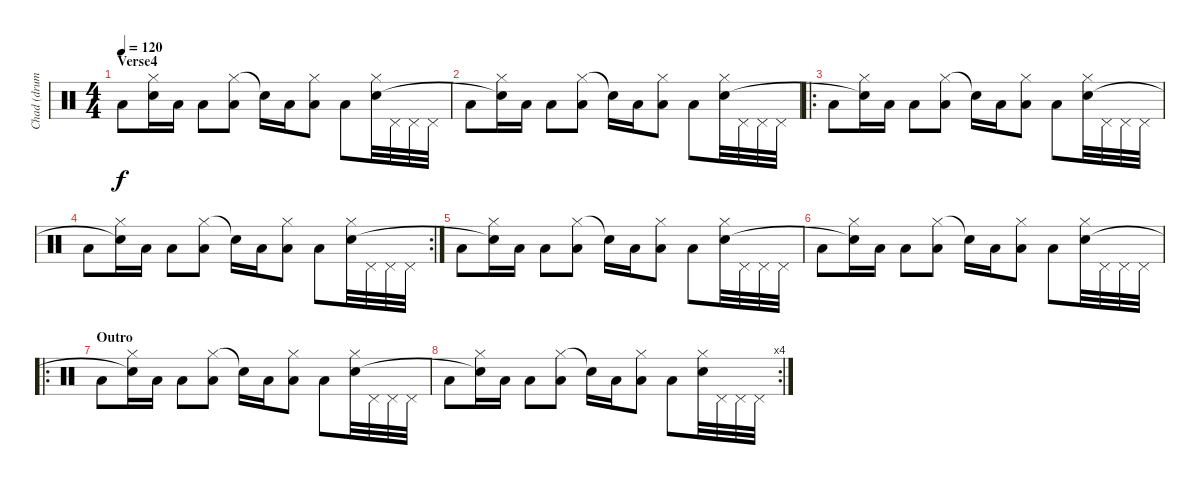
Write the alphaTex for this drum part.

\track ("Chad (drums)" "Chad (drum") {instrument percussion}
\staff {score}
\articulation defaults
\ts (4 4)
\section ("" "Verse4")
\tempo 120
\clef neutral
\ks c "Low Tom (hit)".8{dy f}
("Hi-Hat (closed)" "Snare (hit)"{t}).16 "Low Tom (hit)".16 "Low Floor Tom (hit)".8 ("Hi-Hat (closed)" "Low Tom (hit)").8 "Snare (hit)"{t}.16 "Low Tom (hit)".16 ("Hi-Hat (closed)" "Low Floor Tom (hit)").8 "Low Tom (hit)".8 ("Hi-Hat (closed)" "Snare (hit) 2").32 "Pedal Hi-Hat (hit)".32 "Pedal Hi-Hat (hit)".32 "Pedal Hi-Hat (hit)".32 |
"Low Tom (hit)".8 ("Hi-Hat (closed)" "Snare (hit)"{t}).16 "Low Tom (hit)".16 "Low Floor Tom (hit)".8 ("Hi-Hat (closed)" "Low Tom (hit)").8 "Snare (hit)"{t}.16 "Low Tom (hit)".16 ("Hi-Hat (closed)" "Low Floor Tom (hit)").8 "Low Tom (hit)".8 ("Hi-Hat (closed)" "Snare (hit) 2").32 "Pedal Hi-Hat (hit)".32 "Pedal Hi-Hat (hit)".32 "Pedal Hi-Hat (hit)".32 |
\ro "Low Tom (hit)".8
("Hi-Hat (closed)" "Snare (hit)"{t}).16 "Low Tom (hit)".16 "Low Floor Tom (hit)".8 ("Hi-Hat (closed)" "Low Tom (hit)").8 "Snare (hit)"{t}.16 "Low Tom (hit)".16 ("Hi-Hat (closed)" "Low Floor Tom (hit)").8 "Low Tom (hit)".8 ("Hi-Hat (closed)" "Snare (hit) 2").32 "Pedal Hi-Hat (hit)".32 "Pedal Hi-Hat (hit)".32 "Pedal Hi-Hat (hit)".32 |
\rc 2 "Low Tom (hit)".8
("Hi-Hat (closed)" "Snare (hit)"{t}).16 "Low Tom (hit)".16 "Low Floor Tom (hit)".8 ("Hi-Hat (closed)" "Low Tom (hit)").8 "Snare (hit)"{t}.16 "Low Tom (hit)".16 ("Hi-Hat (closed)" "Low Floor Tom (hit)").8 "Low Tom (hit)".8 ("Hi-Hat (closed)" "Snare (hit) 2").32 "Pedal Hi-Hat (hit)".32 "Pedal Hi-Hat (hit)".32 "Pedal Hi-Hat (hit)".32 |
"Low Tom (hit)".8 ("Hi-Hat (closed)" "Snare (hit)"{t}).16 "Low Tom (hit)".16 "Low Floor Tom (hit)".8 ("Hi-Hat (closed)" "Low Tom (hit)").8 "Snare (hit)"{t}.16 "Low Tom (hit)".16 ("Hi-Hat (closed)" "Low Floor Tom (hit)").8 "Low Tom (hit)".8 ("Hi-Hat (closed)" "Snare (hit) 2").32 "Pedal Hi-Hat (hit)".32 "Pedal Hi-Hat (hit)".32 "Pedal Hi-Hat (hit)".32 |
"Low Tom (hit)".8 ("Hi-Hat (closed)" "Snare (hit)"{t}).16 "Low Tom (hit)".16 "Low Floor Tom (hit)".8 ("Hi-Hat (closed)" "Low Tom (hit)").8 "Snare (hit)"{t}.16 "Low Tom (hit)".16 ("Hi-Hat (closed)" "Low Floor Tom (hit)").8 "Low Tom (hit)".8 ("Hi-Hat (closed)" "Snare (hit) 2").32 "Pedal Hi-Hat (hit)".32 "Pedal Hi-Hat (hit)".32 "Pedal Hi-Hat (hit)".32 |
\ro
\section ("" "Outro")
"Low Tom (hit)".8 ("Hi-Hat (closed)" "Snare (hit)"{t}).16 "Low Tom (hit)".16 "Low Floor Tom (hit)".8 ("Hi-Hat (closed)" "Low Tom (hit)").8 "Snare (hit)"{t}.16 "Low Tom (hit)".16 ("Hi-Hat (closed)" "Low Floor Tom (hit)").8 "Low Tom (hit)".8 ("Hi-Hat (closed)" "Snare (hit) 2").32 "Pedal Hi-Hat (hit)".32 "Pedal Hi-Hat (hit)".32 "Pedal Hi-Hat (hit)".32 |
\rc 4 "Low Tom (hit)".8
("Hi-Hat (closed)" "Snare (hit)"{t}).16 "Low Tom (hit)".16 "Low Floor Tom (hit)".8 ("Hi-Hat (closed)" "Low Tom (hit)").8 "Snare (hit)"{t}.16 "Low Tom (hit)".16 ("Hi-Hat (closed)" "Low Floor Tom (hit)").8 "Low Tom (hit)".8 ("Hi-Hat (closed)" "Snare (hit) 2").32 "Pedal Hi-Hat (hit)".32 "Pedal Hi-Hat (hit)".32 "Pedal Hi-Hat (hit)".32
